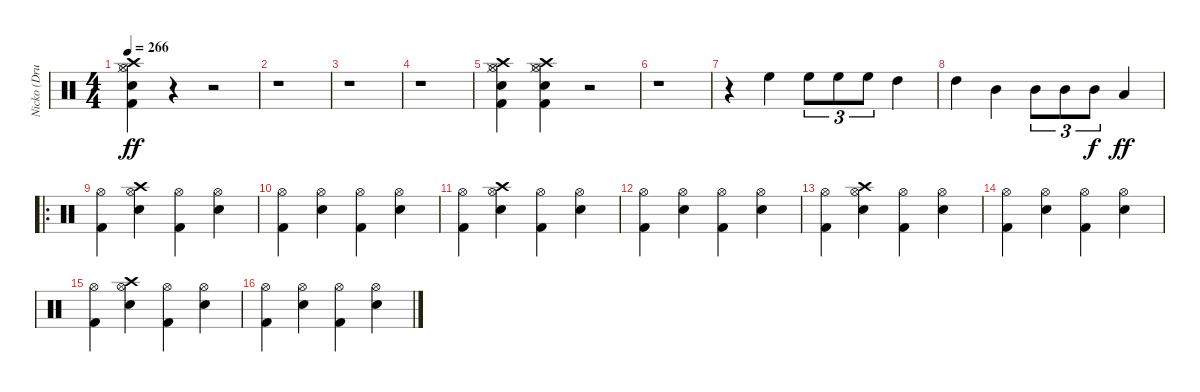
\track ("Nicko (Drums)" "Nicko (Dru") {instrument percussion}
\staff {score}
\articulation defaults
\ts (4 4)
\tempo 266
\clef neutral
\ks c
("Kick (hit) 2" "Snare (hit) 2" "Hi-Hat (closed)" "Hi-Hat (open)" "Crash high (hit)").4{dy ff} r.4 r.2 |
r.1 |
r.1 |
r.1 |
("Kick (hit) 2" "Snare (hit) 2" "Hi-Hat (closed)" "Hi-Hat (open)" "Crash high (hit)").4 ("Kick (hit) 2" "Snare (hit) 2" "Hi-Hat (closed)" "Hi-Hat (open)" "Crash high (hit)").4 r.2 |
r.1 |
r.4 "High Floor Tom (hit)".4 "High Floor Tom (hit)".8{tu (3 2)} "High Floor Tom (hit)".8{tu (3 2)} "High Floor Tom (hit)".8{tu (3 2)} "High Tom (hit)".4 |
"High Tom (hit)".4 "Mid Tom (hit)".4 "Mid Tom (hit)".8{tu (3 2)} "Mid Tom (hit)".8{tu (3 2)} "Mid Tom (hit)".8{tu (3 2) dy f} "Low Tom (hit)".4{dy ff} |
\ro
("Kick (hit) 2" "Hi-Hat (open)").4 ("Snare (hit) 2" "Hi-Hat (open)" "Crash high (hit)").4 ("Kick (hit) 2" "Hi-Hat (open)").4 ("Snare (hit) 2" "Hi-Hat (open)").4 |
("Kick (hit) 2" "Hi-Hat (open)").4 ("Snare (hit) 2" "Hi-Hat (open)").4 ("Kick (hit) 2" "Hi-Hat (open)").4 ("Snare (hit) 2" "Hi-Hat (open)").4 |
("Kick (hit) 2" "Hi-Hat (open)").4 ("Snare (hit) 2" "Hi-Hat (open)" "Crash high (hit)").4 ("Kick (hit) 2" "Hi-Hat (open)").4 ("Snare (hit) 2" "Hi-Hat (open)").4 |
("Kick (hit) 2" "Hi-Hat (open)").4 ("Snare (hit) 2" "Hi-Hat (open)").4 ("Kick (hit) 2" "Hi-Hat (open)").4 ("Snare (hit) 2" "Hi-Hat (open)").4 |
("Kick (hit) 2" "Hi-Hat (open)").4 ("Snare (hit) 2" "Hi-Hat (open)" "Crash high (hit)").4 ("Kick (hit) 2" "Hi-Hat (open)").4 ("Snare (hit) 2" "Hi-Hat (open)").4 |
("Kick (hit) 2" "Hi-Hat (open)").4 ("Snare (hit) 2" "Hi-Hat (open)").4 ("Kick (hit) 2" "Hi-Hat (open)").4 ("Snare (hit) 2" "Hi-Hat (open)").4 |
("Kick (hit) 2" "Hi-Hat (open)").4 ("Snare (hit) 2" "Hi-Hat (open)" "Crash high (hit)").4 ("Kick (hit) 2" "Hi-Hat (open)").4 ("Snare (hit) 2" "Hi-Hat (open)").4 |
("Kick (hit) 2" "Hi-Hat (open)").4 ("Snare (hit) 2" "Hi-Hat (open)").4 ("Kick (hit) 2" "Hi-Hat (open)").4 ("Snare (hit) 2" "Hi-Hat (open)").4
